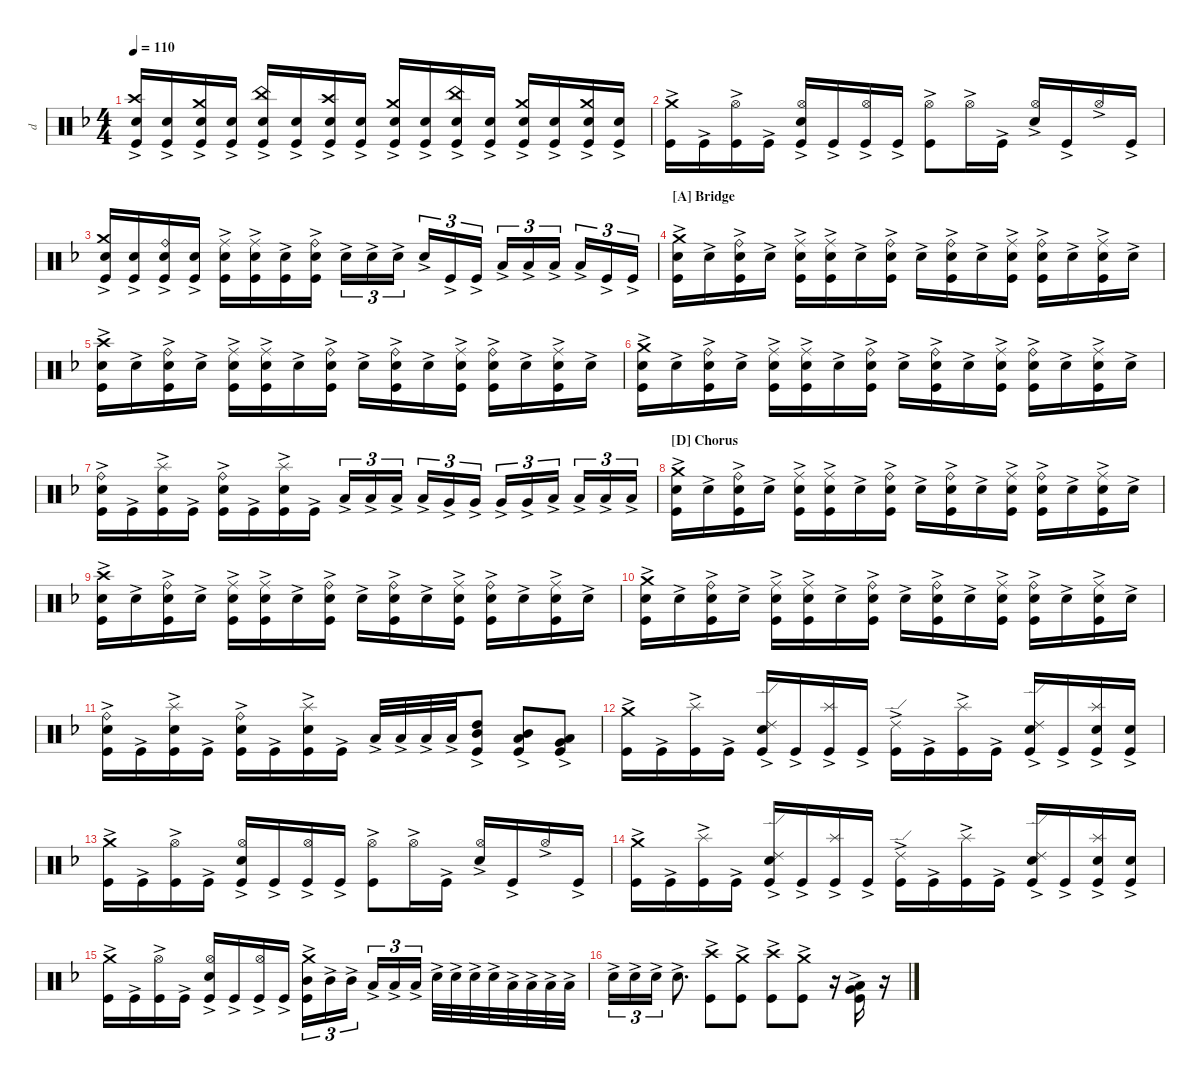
\defaultSystemsLayout 4
\hideDynamics
\bracketExtendMode nobrackets
\otherSystemsTrackNameOrientation horizontal
\track ("Drumkit" "d") {instrument percussion}
\staff {score}
\articulation defaults
\ts (4 4)
\tempo 110
\clef neutral
\ks dminor
("Crash high (hit)"{ac acc forcenatural} "Snare (hit) 2"{ac acc forcenatural} "Kick (hit)"{ac acc forcenatural}).16{dy mf beam Up} ("Snare (hit) 2"{ac acc forcenatural} "Kick (hit)"{ac acc forcenatural}).16{beam Up} ("Crash medium (hit)"{ac acc forcenatural} "Snare (hit) 2"{ac acc forcenatural} "Kick (hit)"{ac acc forcenatural}).16{beam Up} ("Snare (hit) 2"{ac acc forcenatural} "Kick (hit)"{ac acc forcenatural}).16{beam Up} ("China (hit)"{ac acc forcenatural} "Snare (hit) 2"{ac acc forcenatural} "Kick (hit)"{ac acc forcenatural}).16{beam Up} ("Snare (hit) 2"{ac acc forcenatural} "Kick (hit)"{ac acc forcenatural}).16{beam Up} ("Crash high (hit)"{ac acc forcenatural} "Snare (hit) 2"{ac acc forcenatural} "Kick (hit)"{ac acc forcenatural}).16{beam Up} ("Snare (hit) 2"{ac acc forcenatural} "Kick (hit)"{ac acc forcenatural}).16{beam Up} ("Crash medium (hit)"{ac acc forcenatural} "Snare (hit) 2"{ac acc forcenatural} "Kick (hit)"{ac acc forcenatural}).16{beam Up} ("Snare (hit) 2"{ac acc forcenatural} "Kick (hit)"{ac acc forcenatural}).16{beam Up} ("China (hit)"{ac acc forcenatural} "Snare (hit) 2"{ac acc forcenatural} "Kick (hit)"{ac acc forcenatural}).16{beam Up} ("Snare (hit) 2"{ac acc forcenatural} "Kick (hit)"{ac acc forcenatural}).16{beam Up} ("Crash medium (hit)"{ac acc forcenatural} "Snare (hit) 2"{ac acc forcenatural} "Kick (hit)"{ac acc forcenatural}).16{beam Up} ("Snare (hit) 2"{ac acc forcenatural} "Kick (hit)"{ac acc forcenatural}).16{beam Up} ("Crash medium (hit)"{ac acc forcenatural} "Snare (hit) 2"{ac acc forcenatural} "Kick (hit)"{ac acc forcenatural}).16{beam Up} ("Snare (hit) 2"{ac acc forcenatural} "Kick (hit)"{ac acc forcenatural}).16{beam Up} |
("Crash medium (hit)"{ac acc forcenatural} "Kick (hit)"{ac acc forcenatural}).16{dy ff beam Down} "Kick (hit)"{ac acc forcenatural}.16{dy mf beam Down} ("Hi-Hat (open)"{ac acc forcenatural} "Kick (hit)"{ac acc forcenatural}).16{beam Down} "Kick (hit)"{ac acc forcenatural}.16{beam Down} ("Hi-Hat (open)"{ac acc forcenatural} "Snare (hit) 2"{ac acc forcenatural} "Kick (hit)"{ac acc forcenatural}).16{beam Up} "Kick (hit)"{ac acc forcenatural}.16{beam Up} ("Hi-Hat (open)"{ac acc forcenatural} "Kick (hit)"{ac acc forcenatural}).16{beam Up} "Kick (hit)"{ac acc forcenatural}.16{beam Up} ("Hi-Hat (open)"{ac acc forcenatural} "Kick (hit)"{ac acc forcenatural}).8{beam Down} "Hi-Hat (open)"{ac acc forcenatural}.16{beam Down} "Kick (hit)"{ac acc forcenatural}.16{beam Down} ("Hi-Hat (open)"{ac acc forcenatural} "Snare (hit) 2"{ac acc forcenatural}).16{beam Up} "Kick (hit)"{ac acc forcenatural}.16{beam Up} "Hi-Hat (open)"{ac acc forcenatural}.16{beam Up} "Kick (hit)"{ac acc forcenatural}.16{beam Up} |
("Crash medium (hit)"{ac acc forcenatural} "Snare (hit) 2"{ac acc forcenatural} "Kick (hit)"{ac acc forcenatural}).16{beam Up} ("Snare (hit) 2"{ac acc forcenatural} "Kick (hit)"{ac acc forcenatural}).16{beam Up} ("Ride (bell)"{ac acc forcenatural} "Snare (hit) 2"{ac acc forcenatural} "Kick (hit)"{ac acc forcenatural}).16{beam Up} ("Snare (hit) 2"{ac acc forcenatural} "Kick (hit)"{ac acc forcenatural}).16{beam Up} ("Ride (middle)"{ac acc forcenatural} "Snare (hit) 2"{ac acc forcenatural} "Kick (hit)"{ac acc forcenatural}).16{beam Down} ("Ride (middle)"{ac acc forcenatural} "Snare (hit) 2"{ac acc forcenatural} "Kick (hit)"{ac acc forcenatural}).16{beam Down} ("Snare (hit) 2"{ac acc forcenatural} "Kick (hit)"{ac acc forcenatural}).16{beam Down} ("Ride (bell)"{ac acc forcenatural} "Snare (hit) 2"{ac acc forcenatural} "Kick (hit)"{ac acc forcenatural}).16{beam Down} "Snare (hit) 2"{ac acc forcenatural}.16{tu (3 2) beam Down} "Snare (hit) 2"{ac acc forcenatural}.16{tu (3 2) beam Down} "Snare (hit) 2"{ac acc forcenatural}.16{tu (3 2) beam Down} "Snare (hit) 2"{ac acc forcenatural}.16{tu (3 2) beam Up} "Kick (hit)"{ac acc forcenatural}.16{tu (3 2) beam Up} "Kick (hit)"{ac acc forcenatural}.16{tu (3 2) beam Up} "Low Floor Tom (hit)"{ac acc forcenatural}.16{tu (3 2) beam Up} "Low Floor Tom (hit)"{ac acc forcenatural}.16{tu (3 2) beam Up} "Low Floor Tom (hit)"{ac acc forcenatural}.16{tu (3 2) beam Up} "Low Floor Tom (hit)"{ac acc forcenatural}.16{tu (3 2) beam Up} "Kick (hit)"{ac acc forcenatural}.16{tu (3 2) beam Up} "Kick (hit)"{ac acc forcenatural}.16{tu (3 2) beam Up} |
\section ("A" "Bridge")
("Crash medium (hit)"{ac acc forcenatural} "Snare (hit) 2"{ac acc forcenatural} "Kick (hit)"{ac acc forcenatural}).16{beam Down} "Snare (hit) 2"{ac acc forcenatural}.16{beam Down} ("Ride (bell)"{ac acc forcenatural} "Snare (hit) 2"{ac acc forcenatural} "Kick (hit)"{ac acc forcenatural}).16{beam Down} "Snare (hit) 2"{ac acc forcenatural}.16{beam Down} ("Ride (middle)"{ac acc forcenatural} "Snare (hit) 2"{ac acc forcenatural} "Kick (hit)"{ac acc forcenatural}).16{beam Down} ("Ride (middle)"{ac acc forcenatural} "Snare (hit) 2"{ac acc forcenatural} "Kick (hit)"{ac acc forcenatural}).16{beam Down} "Snare (hit) 2"{ac acc forcenatural}.16{beam Down} ("Ride (bell)"{ac acc forcenatural} "Snare (hit) 2"{ac acc forcenatural} "Kick (hit)"{ac acc forcenatural}).16{beam Down} "Snare (hit) 2"{ac acc forcenatural}.16{beam Down} ("Ride (bell)"{ac acc forcenatural} "Snare (hit) 2"{ac acc forcenatural} "Kick (hit)"{ac acc forcenatural}).16{beam Down} "Snare (hit) 2"{ac acc forcenatural}.16{beam Down} ("Ride (middle)"{ac acc forcenatural} "Snare (hit) 2"{ac acc forcenatural} "Kick (hit)"{ac acc forcenatural}).16{beam Down} ("Ride (bell)"{ac acc forcenatural} "Snare (hit) 2"{ac acc forcenatural} "Kick (hit)"{ac acc forcenatural}).16{beam Down} "Snare (hit) 2"{ac acc forcenatural}.16{beam Down} ("Ride (middle)"{ac acc forcenatural} "Snare (hit) 2"{ac acc forcenatural} "Kick (hit)"{ac acc forcenatural}).16{beam Down} "Snare (hit) 2"{ac acc forcenatural}.16{beam Down} |
("Crash high (hit)"{ac acc forcenatural} "Snare (hit) 2"{ac acc forcenatural} "Kick (hit)"{ac acc forcenatural}).16{beam Down} "Snare (hit) 2"{ac acc forcenatural}.16{beam Down} ("Ride (bell)"{ac acc forcenatural} "Snare (hit) 2"{ac acc forcenatural} "Kick (hit)"{ac acc forcenatural}).16{beam Down} "Snare (hit) 2"{ac acc forcenatural}.16{beam Down} ("Ride (middle)"{ac acc forcenatural} "Snare (hit) 2"{ac acc forcenatural} "Kick (hit)"{ac acc forcenatural}).16{beam Down} ("Ride (middle)"{ac acc forcenatural} "Snare (hit) 2"{ac acc forcenatural} "Kick (hit)"{ac acc forcenatural}).16{beam Down} "Snare (hit) 2"{ac acc forcenatural}.16{beam Down} ("Ride (bell)"{ac acc forcenatural} "Snare (hit) 2"{ac acc forcenatural} "Kick (hit)"{ac acc forcenatural}).16{beam Down} "Snare (hit) 2"{ac acc forcenatural}.16{beam Down} ("Ride (bell)"{ac acc forcenatural} "Snare (hit) 2"{ac acc forcenatural} "Kick (hit)"{ac acc forcenatural}).16{beam Down} "Snare (hit) 2"{ac acc forcenatural}.16{beam Down} ("Ride (middle)"{ac acc forcenatural} "Snare (hit) 2"{ac acc forcenatural} "Kick (hit)"{ac acc forcenatural}).16{beam Down} ("Ride (bell)"{ac acc forcenatural} "Snare (hit) 2"{ac acc forcenatural} "Kick (hit)"{ac acc forcenatural}).16{beam Down} "Snare (hit) 2"{ac acc forcenatural}.16{beam Down} ("Ride (middle)"{ac acc forcenatural} "Snare (hit) 2"{ac acc forcenatural} "Kick (hit)"{ac acc forcenatural}).16{beam Down} "Snare (hit) 2"{ac acc forcenatural}.16{beam Down} |
("Crash medium (hit)"{ac acc forcenatural} "Snare (hit) 2"{ac acc forcenatural} "Kick (hit)"{ac acc forcenatural}).16{beam Down} "Snare (hit) 2"{ac acc forcenatural}.16{beam Down} ("Ride (bell)"{ac acc forcenatural} "Snare (hit) 2"{ac acc forcenatural} "Kick (hit)"{ac acc forcenatural}).16{beam Down} "Snare (hit) 2"{ac acc forcenatural}.16{beam Down} ("Ride (middle)"{ac acc forcenatural} "Snare (hit) 2"{ac acc forcenatural} "Kick (hit)"{ac acc forcenatural}).16{beam Down} ("Ride (middle)"{ac acc forcenatural} "Snare (hit) 2"{ac acc forcenatural} "Kick (hit)"{ac acc forcenatural}).16{beam Down} "Snare (hit) 2"{ac acc forcenatural}.16{beam Down} ("Ride (bell)"{ac acc forcenatural} "Snare (hit) 2"{ac acc forcenatural} "Kick (hit)"{ac acc forcenatural}).16{beam Down} "Snare (hit) 2"{ac acc forcenatural}.16{beam Down} ("Ride (bell)"{ac acc forcenatural} "Snare (hit) 2"{ac acc forcenatural} "Kick (hit)"{ac acc forcenatural}).16{beam Down} "Snare (hit) 2"{ac acc forcenatural}.16{beam Down} ("Ride (middle)"{ac acc forcenatural} "Snare (hit) 2"{ac acc forcenatural} "Kick (hit)"{ac acc forcenatural}).16{beam Down} ("Ride (bell)"{ac acc forcenatural} "Snare (hit) 2"{ac acc forcenatural} "Kick (hit)"{ac acc forcenatural}).16{beam Down} "Snare (hit) 2"{ac acc forcenatural}.16{beam Down} ("Ride (middle)"{ac acc forcenatural} "Snare (hit) 2"{ac acc forcenatural} "Kick (hit)"{ac acc forcenatural}).16{beam Down} "Snare (hit) 2"{ac acc forcenatural}.16{beam Down} |
("Kick (hit)"{ac acc forcenatural} "Snare (hit) 2"{ac acc forcenatural} "Ride (bell)"{ac acc forcenatural}).16{beam Down} "Kick (hit)"{ac acc forcenatural}.16{beam Down} ("Kick (hit)"{ac acc forcenatural} "Snare (hit) 2"{ac acc forcenatural} "Splash (hit)"{ac acc forcenatural}).16{beam Down} "Kick (hit)"{ac acc forcenatural}.16{beam Down} ("Kick (hit)"{ac acc forcenatural} "Snare (hit) 2"{ac acc forcenatural} "Ride (bell)"{ac acc forcenatural}).16{beam Down} "Kick (hit)"{ac acc forcenatural}.16{beam Down} ("Kick (hit)"{ac acc forcenatural} "Snare (hit) 2"{ac acc forcenatural} "Splash (hit)"{ac acc forcenatural}).16{beam Down} "Kick (hit)"{ac acc forcenatural}.16{beam Down} "Low Tom (hit)"{ac acc forcenatural}.16{tu (3 2) beam Up} "Low Tom (hit)"{ac acc forcenatural}.16{tu (3 2) beam Up} "Low Tom (hit)"{ac acc forcenatural}.16{tu (3 2) beam Up} "Low Tom (hit)"{ac acc forcenatural}.16{tu (3 2) beam Up} "Very Low Tom (hit)"{ac acc forcenatural}.16{tu (3 2) beam Up} "Very Low Tom (hit)"{ac acc forcenatural}.16{tu (3 2) beam Up} "Very Low Tom (hit)"{ac acc forcenatural}.16{tu (3 2) beam Up} "Very Low Tom (hit)"{ac acc forcenatural}.16{tu (3 2) beam Up} "Low Floor Tom (hit)"{ac acc forcenatural}.16{tu (3 2) beam Up} "Low Floor Tom (hit)"{ac acc forcenatural}.16{tu (3 2) beam Up} "Low Floor Tom (hit)"{ac acc forcenatural}.16{tu (3 2) beam Up} "Low Floor Tom (hit)"{ac acc forcenatural}.16{tu (3 2) beam Up} |
\section ("D" "Chorus")
("Crash medium (hit)"{ac acc forcenatural} "Snare (hit) 2"{ac acc forcenatural} "Kick (hit)"{ac acc forcenatural}).16{beam Down} "Snare (hit) 2"{ac acc forcenatural}.16{beam Down} ("Ride (bell)"{ac acc forcenatural} "Snare (hit) 2"{ac acc forcenatural} "Kick (hit)"{ac acc forcenatural}).16{beam Down} "Snare (hit) 2"{ac acc forcenatural}.16{beam Down} ("Ride (middle)"{ac acc forcenatural} "Snare (hit) 2"{ac acc forcenatural} "Kick (hit)"{ac acc forcenatural}).16{beam Down} ("Ride (middle)"{ac acc forcenatural} "Snare (hit) 2"{ac acc forcenatural} "Kick (hit)"{ac acc forcenatural}).16{beam Down} "Snare (hit) 2"{ac acc forcenatural}.16{beam Down} ("Ride (bell)"{ac acc forcenatural} "Snare (hit) 2"{ac acc forcenatural} "Kick (hit)"{ac acc forcenatural}).16{beam Down} "Snare (hit) 2"{ac acc forcenatural}.16{beam Down} ("Ride (bell)"{ac acc forcenatural} "Snare (hit) 2"{ac acc forcenatural} "Kick (hit)"{ac acc forcenatural}).16{beam Down} "Snare (hit) 2"{ac acc forcenatural}.16{beam Down} ("Ride (middle)"{ac acc forcenatural} "Snare (hit) 2"{ac acc forcenatural} "Kick (hit)"{ac acc forcenatural}).16{beam Down} ("Ride (bell)"{ac acc forcenatural} "Snare (hit) 2"{ac acc forcenatural} "Kick (hit)"{ac acc forcenatural}).16{beam Down} "Snare (hit) 2"{ac acc forcenatural}.16{beam Down} ("Ride (middle)"{ac acc forcenatural} "Snare (hit) 2"{ac acc forcenatural} "Kick (hit)"{ac acc forcenatural}).16{beam Down} "Snare (hit) 2"{ac acc forcenatural}.16{beam Down} |
("Crash high (hit)"{ac acc forcenatural} "Snare (hit) 2"{ac acc forcenatural} "Kick (hit)"{ac acc forcenatural}).16{beam Down} "Snare (hit) 2"{ac acc forcenatural}.16{beam Down} ("Ride (bell)"{ac acc forcenatural} "Snare (hit) 2"{ac acc forcenatural} "Kick (hit)"{ac acc forcenatural}).16{beam Down} "Snare (hit) 2"{ac acc forcenatural}.16{beam Down} ("Ride (middle)"{ac acc forcenatural} "Snare (hit) 2"{ac acc forcenatural} "Kick (hit)"{ac acc forcenatural}).16{beam Down} ("Ride (middle)"{ac acc forcenatural} "Snare (hit) 2"{ac acc forcenatural} "Kick (hit)"{ac acc forcenatural}).16{beam Down} "Snare (hit) 2"{ac acc forcenatural}.16{beam Down} ("Ride (bell)"{ac acc forcenatural} "Snare (hit) 2"{ac acc forcenatural} "Kick (hit)"{ac acc forcenatural}).16{beam Down} "Snare (hit) 2"{ac acc forcenatural}.16{beam Down} ("Ride (bell)"{ac acc forcenatural} "Snare (hit) 2"{ac acc forcenatural} "Kick (hit)"{ac acc forcenatural}).16{beam Down} "Snare (hit) 2"{ac acc forcenatural}.16{beam Down} ("Ride (middle)"{ac acc forcenatural} "Snare (hit) 2"{ac acc forcenatural} "Kick (hit)"{ac acc forcenatural}).16{beam Down} ("Ride (bell)"{ac acc forcenatural} "Snare (hit) 2"{ac acc forcenatural} "Kick (hit)"{ac acc forcenatural}).16{beam Down} "Snare (hit) 2"{ac acc forcenatural}.16{beam Down} ("Ride (middle)"{ac acc forcenatural} "Snare (hit) 2"{ac acc forcenatural} "Kick (hit)"{ac acc forcenatural}).16{beam Down} "Snare (hit) 2"{ac acc forcenatural}.16{beam Down} |
("Crash medium (hit)"{ac acc forcenatural} "Snare (hit) 2"{ac acc forcenatural} "Kick (hit)"{ac acc forcenatural}).16{beam Down} "Snare (hit) 2"{ac acc forcenatural}.16{beam Down} ("Ride (bell)"{ac acc forcenatural} "Snare (hit) 2"{ac acc forcenatural} "Kick (hit)"{ac acc forcenatural}).16{beam Down} "Snare (hit) 2"{ac acc forcenatural}.16{beam Down} ("Ride (middle)"{ac acc forcenatural} "Snare (hit) 2"{ac acc forcenatural} "Kick (hit)"{ac acc forcenatural}).16{beam Down} ("Ride (middle)"{ac acc forcenatural} "Snare (hit) 2"{ac acc forcenatural} "Kick (hit)"{ac acc forcenatural}).16{beam Down} "Snare (hit) 2"{ac acc forcenatural}.16{beam Down} ("Ride (bell)"{ac acc forcenatural} "Snare (hit) 2"{ac acc forcenatural} "Kick (hit)"{ac acc forcenatural}).16{beam Down} "Snare (hit) 2"{ac acc forcenatural}.16{beam Down} ("Ride (bell)"{ac acc forcenatural} "Snare (hit) 2"{ac acc forcenatural} "Kick (hit)"{ac acc forcenatural}).16{beam Down} "Snare (hit) 2"{ac acc forcenatural}.16{beam Down} ("Ride (middle)"{ac acc forcenatural} "Snare (hit) 2"{ac acc forcenatural} "Kick (hit)"{ac acc forcenatural}).16{beam Down} ("Ride (bell)"{ac acc forcenatural} "Snare (hit) 2"{ac acc forcenatural} "Kick (hit)"{ac acc forcenatural}).16{beam Down} "Snare (hit) 2"{ac acc forcenatural}.16{beam Down} ("Ride (middle)"{ac acc forcenatural} "Snare (hit) 2"{ac acc forcenatural} "Kick (hit)"{ac acc forcenatural}).16{beam Down} "Snare (hit) 2"{ac acc forcenatural}.16{beam Down} |
("Kick (hit)"{ac acc forcenatural} "Snare (hit) 2"{ac acc forcenatural} "Ride (bell)"{ac acc forcenatural}).16{beam Down} "Kick (hit)"{ac acc forcenatural}.16{beam Down} ("Kick (hit)"{ac acc forcenatural} "Snare (hit) 2"{ac acc forcenatural} "Splash (hit)"{ac acc forcenatural}).16{beam Down} "Kick (hit)"{ac acc forcenatural}.16{beam Down} ("Kick (hit)"{ac acc forcenatural} "Snare (hit) 2"{ac acc forcenatural} "Ride (bell)"{ac acc forcenatural}).16{beam Down} "Kick (hit)"{ac acc forcenatural}.16{beam Down} ("Kick (hit)"{ac acc forcenatural} "Snare (hit) 2"{ac acc forcenatural} "Splash (hit)"{ac acc forcenatural}).16{beam Down} "Kick (hit)"{ac acc forcenatural}.16{beam Down} "Low Tom (hit)"{ac acc forcenatural}.32{beam Up} "Low Tom (hit)"{ac acc forcenatural}.32{beam Up} "Low Tom (hit)"{ac acc forcenatural}.32{beam Up} "Low Tom (hit)"{ac acc forcenatural}.32{beam Up} ("Mid Tom (hit)"{ac acc forcenatural} "High Tom (hit)"{ac acc forcenatural} "Kick (hit)"{ac acc forcenatural}).8{beam Up} ("Low Tom (hit)"{ac acc forcenatural} "Mid Tom (hit)"{ac acc forcenatural} "Kick (hit)"{ac acc forcenatural}).8{beam Up} ("Very Low Tom (hit)"{ac acc forcenatural} "Low Tom (hit)"{ac acc forcenatural} "Kick (hit)"{ac acc forcenatural}).8{beam Up} |
("Crash medium (hit)"{ac acc forcenatural} "Kick (hit)"{ac acc forcenatural}).16{beam Down} "Kick (hit)"{ac acc forcenatural}.16{beam Down} ("Splash (hit)"{ac acc forcenatural} "Kick (hit)"{ac acc forcenatural}).16{beam Down} "Kick (hit)"{ac acc forcenatural}.16{beam Down} ("Ride (edge) 2"{ac acc forcenatural} "Snare (hit) 2"{ac acc forcenatural} "Kick (hit)"{ac acc forcenatural}).16{beam Up} "Kick (hit)"{ac acc forcenatural}.16{beam Up} ("Splash (hit)"{ac acc forcenatural} "Kick (hit)"{ac acc forcenatural}).16{beam Up} "Kick (hit)"{ac acc forcenatural}.16{beam Up} ("Ride (edge) 2"{ac acc forcenatural} "Kick (hit)"{ac acc forcenatural}).16{beam Down} "Kick (hit)"{ac acc forcenatural}.16{beam Down} ("Splash (hit)"{ac acc forcenatural} "Kick (hit)"{ac acc forcenatural}).16{beam Down} "Kick (hit)"{ac acc forcenatural}.16{beam Down} ("Ride (edge) 2"{ac acc forcenatural} "Snare (hit) 2"{ac acc forcenatural} "Kick (hit)"{ac acc forcenatural}).16{beam Up} "Kick (hit)"{ac acc forcenatural}.16{beam Up} ("Splash (hit)"{ac acc forcenatural} "Snare (hit) 2"{ac acc forcenatural} "Kick (hit)"{ac acc forcenatural}).16{beam Up} ("Snare (hit) 2"{ac acc forcenatural} "Kick (hit)"{ac acc forcenatural}).16{beam Up} |
("Crash medium (hit)"{ac acc forcenatural} "Kick (hit)"{ac acc forcenatural}).16{dy ff beam Down} "Kick (hit)"{ac acc forcenatural}.16{dy mf beam Down} ("Hi-Hat (open)"{ac acc forcenatural} "Kick (hit)"{ac acc forcenatural}).16{beam Down} "Kick (hit)"{ac acc forcenatural}.16{beam Down} ("Hi-Hat (open)"{ac acc forcenatural} "Snare (hit) 2"{ac acc forcenatural} "Kick (hit)"{ac acc forcenatural}).16{beam Up} "Kick (hit)"{ac acc forcenatural}.16{beam Up} ("Hi-Hat (open)"{ac acc forcenatural} "Kick (hit)"{ac acc forcenatural}).16{beam Up} "Kick (hit)"{ac acc forcenatural}.16{beam Up} ("Hi-Hat (open)"{ac acc forcenatural} "Kick (hit)"{ac acc forcenatural}).8{beam Down} "Hi-Hat (open)"{ac acc forcenatural}.16{beam Down} "Kick (hit)"{ac acc forcenatural}.16{beam Down} ("Hi-Hat (open)"{ac acc forcenatural} "Snare (hit) 2"{ac acc forcenatural}).16{beam Up} "Kick (hit)"{ac acc forcenatural}.16{beam Up} "Hi-Hat (open)"{ac acc forcenatural}.16{beam Up} "Kick (hit)"{ac acc forcenatural}.16{beam Up} |
("Crash medium (hit)"{ac acc forcenatural} "Kick (hit)"{ac acc forcenatural}).16{beam Down} "Kick (hit)"{ac acc forcenatural}.16{beam Down} ("Splash (hit)"{ac acc forcenatural} "Kick (hit)"{ac acc forcenatural}).16{beam Down} "Kick (hit)"{ac acc forcenatural}.16{beam Down} ("Ride (edge) 2"{ac acc forcenatural} "Snare (hit) 2"{ac acc forcenatural} "Kick (hit)"{ac acc forcenatural}).16{beam Up} "Kick (hit)"{ac acc forcenatural}.16{beam Up} ("Splash (hit)"{ac acc forcenatural} "Kick (hit)"{ac acc forcenatural}).16{beam Up} "Kick (hit)"{ac acc forcenatural}.16{beam Up} ("Ride (edge) 2"{ac acc forcenatural} "Kick (hit)"{ac acc forcenatural}).16{beam Down} "Kick (hit)"{ac acc forcenatural}.16{beam Down} ("Splash (hit)"{ac acc forcenatural} "Kick (hit)"{ac acc forcenatural}).16{beam Down} "Kick (hit)"{ac acc forcenatural}.16{beam Down} ("Ride (edge) 2"{ac acc forcenatural} "Snare (hit) 2"{ac acc forcenatural} "Kick (hit)"{ac acc forcenatural}).16{beam Up} "Kick (hit)"{ac acc forcenatural}.16{beam Up} ("Splash (hit)"{ac acc forcenatural} "Snare (hit) 2"{ac acc forcenatural} "Kick (hit)"{ac acc forcenatural}).16{beam Up} ("Snare (hit) 2"{ac acc forcenatural} "Kick (hit)"{ac acc forcenatural}).16{beam Up} |
("Crash medium (hit)"{ac acc forcenatural} "Kick (hit)"{ac acc forcenatural}).16{dy ff beam Down} "Kick (hit)"{ac acc forcenatural}.16{dy mf beam Down} ("Hi-Hat (open)"{ac acc forcenatural} "Kick (hit)"{ac acc forcenatural}).16{beam Down} "Kick (hit)"{ac acc forcenatural}.16{beam Down} ("Hi-Hat (open)"{ac acc forcenatural} "Snare (hit) 2"{ac acc forcenatural} "Kick (hit)"{ac acc forcenatural}).16{beam Up} "Kick (hit)"{ac acc forcenatural}.16{beam Up} ("Hi-Hat (open)"{ac acc forcenatural} "Kick (hit)"{ac acc forcenatural}).16{beam Up} "Kick (hit)"{ac acc forcenatural}.16{beam Up} ("Crash medium (hit)"{ac acc forcenatural} "Mid Tom (hit)"{ac acc forcenatural} "Kick (hit)"{ac acc forcenatural}).16{tu (3 2) beam Down} "Mid Tom (hit)"{ac acc forcenatural}.16{tu (3 2) beam Down} "Mid Tom (hit)"{ac acc forcenatural}.16{tu (3 2) beam Down} "Low Tom (hit)"{ac acc forcenatural}.16{tu (3 2) beam Up} "Low Tom (hit)"{ac acc forcenatural}.16{tu (3 2) beam Up} "Low Tom (hit)"{ac acc forcenatural}.16{tu (3 2) beam Up} "Snare (hit) 2"{ac acc forcenatural}.32{beam Down} "Snare (hit) 2"{ac acc forcenatural}.32{beam Down} "Snare (hit) 2"{ac acc forcenatural}.32{beam Down} "Snare (hit) 2"{ac acc forcenatural}.32{beam Down} "Low Tom (hit)"{ac acc forcenatural}.32{beam Down} "Low Tom (hit)"{ac acc forcenatural}.32{beam Down} "Low Tom (hit)"{ac acc forcenatural}.32{beam Down} "Low Tom (hit)"{ac acc forcenatural}.32{beam Down} |
"Snare (hit) 2"{ac acc forcenatural}.16{tu (3 2) beam Down} "Snare (hit) 2"{ac acc forcenatural}.16{tu (3 2) beam Down} "Snare (hit) 2"{ac acc forcenatural}.16{tu (3 2) beam Down} "Snare (hit) 2"{ac acc forcenatural}.8{d beam Down} ("Crash high (hit)"{ac acc forcenatural} "Kick (hit)"{ac acc forcenatural}).8{beam Down} ("Crash medium (hit)"{ac acc forcenatural} "Kick (hit)"{ac acc forcenatural}).8{beam Down} ("Crash high (hit)"{ac acc forcenatural} "Kick (hit)"{ac acc forcenatural}).8{beam Down} ("Crash medium (hit)"{ac acc forcenatural} "Kick (hit)"{ac acc forcenatural}).8{beam Down} r.16{beam Down} ("Low Floor Tom (hit)"{ac acc forcenatural} "Very Low Tom (hit)"{ac acc forcenatural} "Kick (hit)"{ac acc forcenatural}).16{dy ff beam Up} r.16{beam Up}
